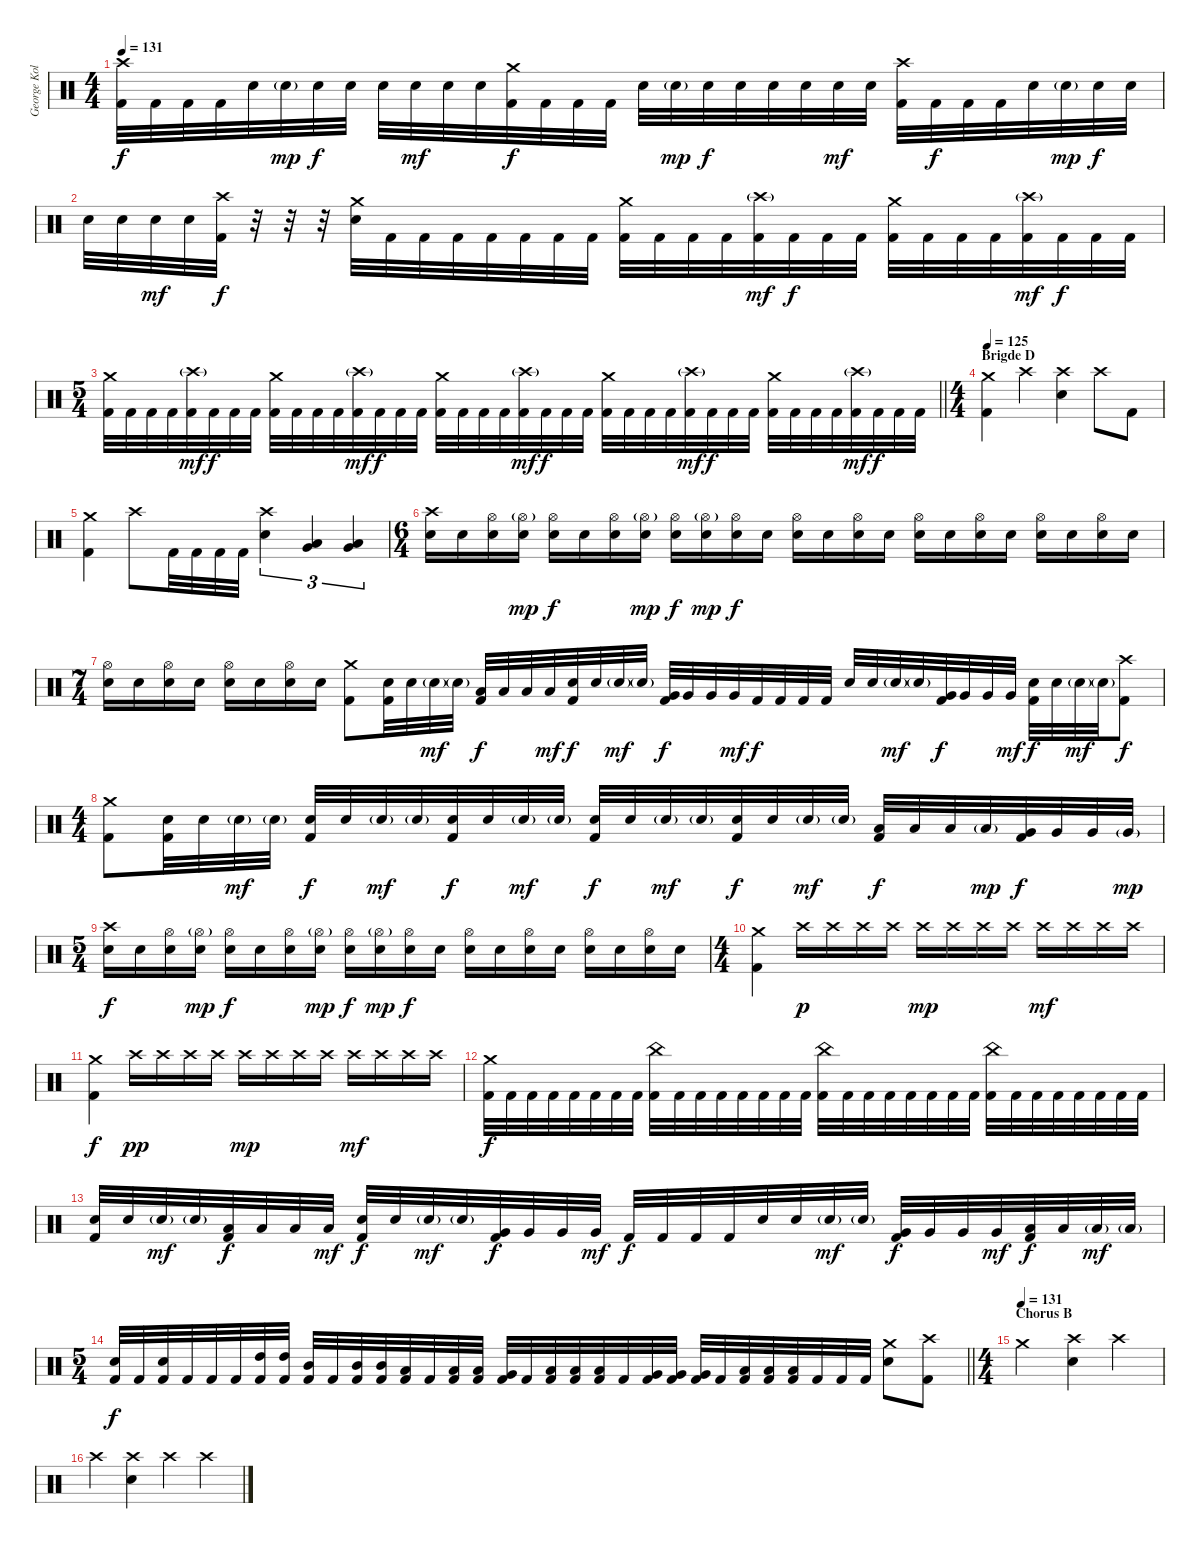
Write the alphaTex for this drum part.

\track ("George Kollias" "George Kol") {instrument percussion}
\staff {score}
\articulation defaults
\ts (4 4)
\tempo 131
\clef neutral
\ks c
("Crash high (hit)" "Kick (hit) 2").32{dy f} "Kick (hit) 2".32 "Kick (hit) 2".32 "Kick (hit) 2".32 "Electric Snare (hit)".32 "Electric Snare (hit)"{g}.32{dy mp} "Electric Snare (hit)".32{dy f} "Electric Snare (hit)".32 "Electric Snare (hit)".32 "Electric Snare (hit)".32{dy mf} "Electric Snare (hit)".32 "Electric Snare (hit)".32 ("Crash medium (hit)" "Kick (hit) 2").32{dy f} "Kick (hit) 2".32 "Kick (hit) 2".32 "Kick (hit) 2".32 "Electric Snare (hit)".32 "Electric Snare (hit)"{g}.32{dy mp} "Electric Snare (hit)".32{dy f} "Electric Snare (hit)".32 "Electric Snare (hit)".32 "Electric Snare (hit)".32 "Electric Snare (hit)".32{dy mf} "Electric Snare (hit)".32 ("Crash high (hit)" "Kick (hit) 2").32 "Kick (hit) 2".32{dy f} "Kick (hit) 2".32 "Kick (hit) 2".32 "Electric Snare (hit)".32 "Electric Snare (hit)"{g}.32{dy mp} "Electric Snare (hit)".32{dy f} "Electric Snare (hit)".32 |
"Electric Snare (hit)".32 "Electric Snare (hit)".32 "Electric Snare (hit)".32{dy mf} "Electric Snare (hit)".32 ("Crash high (hit)" "Kick (hit) 2").32{dy f} r.32 r.32 r.32 ("Crash medium (hit)" "Electric Snare (hit)").32 "Kick (hit) 2".32 "Kick (hit) 2".32 "Kick (hit) 2".32 "Kick (hit) 2".32 "Kick (hit) 2".32 "Kick (hit) 2".32 "Kick (hit) 2".32 ("Crash medium (hit)" "Kick (hit) 2").32 "Kick (hit) 2".32 "Kick (hit) 2".32 "Kick (hit) 2".32 ("Crash high (hit)"{g} "Kick (hit) 2").32{dy mf} "Kick (hit) 2".32{dy f} "Kick (hit) 2".32 "Kick (hit) 2".32 ("Crash medium (hit)" "Kick (hit) 2").32 "Kick (hit) 2".32 "Kick (hit) 2".32 "Kick (hit) 2".32 ("Crash high (hit)"{g} "Kick (hit) 2").32{dy mf} "Kick (hit) 2".32{dy f} "Kick (hit) 2".32 "Kick (hit) 2".32 |
\ts (5 4)
\barLineRight lightlight
("Crash medium (hit)" "Kick (hit) 2").32 "Kick (hit) 2".32 "Kick (hit) 2".32 "Kick (hit) 2".32 ("Crash high (hit)"{g} "Kick (hit) 2").32{dy mf} "Kick (hit) 2".32{dy f} "Kick (hit) 2".32 "Kick (hit) 2".32 ("Crash medium (hit)" "Kick (hit) 2").32 "Kick (hit) 2".32 "Kick (hit) 2".32 "Kick (hit) 2".32 ("Crash high (hit)"{g} "Kick (hit) 2").32{dy mf} "Kick (hit) 2".32{dy f} "Kick (hit) 2".32 "Kick (hit) 2".32 ("Crash medium (hit)" "Kick (hit) 2").32 "Kick (hit) 2".32 "Kick (hit) 2".32 "Kick (hit) 2".32 ("Crash high (hit)"{g} "Kick (hit) 2").32{dy mf} "Kick (hit) 2".32{dy f} "Kick (hit) 2".32 "Kick (hit) 2".32 ("Crash medium (hit)" "Kick (hit) 2").32 "Kick (hit) 2".32 "Kick (hit) 2".32 "Kick (hit) 2".32 ("Crash high (hit)"{g} "Kick (hit) 2").32{dy mf} "Kick (hit) 2".32{dy f} "Kick (hit) 2".32 "Kick (hit) 2".32 ("Crash medium (hit)" "Kick (hit) 2").32 "Kick (hit) 2".32 "Kick (hit) 2".32 "Kick (hit) 2".32 ("Crash high (hit)"{g} "Kick (hit) 2").32{dy mf} "Kick (hit) 2".32{dy f} "Kick (hit) 2".32 "Kick (hit) 2".32 |
\ts (4 4)
\section ("" "Brigde D")
\tempo 125
("Crash medium (hit)" "Kick (hit) 2").4 "Crash high (hit)".4 ("Crash high (hit)" "Electric Snare (hit)").4 "Crash high (hit)".8 "Kick (hit) 2".8 |
("Crash medium (hit)" "Kick (hit) 2").4 "Crash high (hit)".8 "Kick (hit) 2".32 "Kick (hit) 2".32 "Kick (hit) 2".32 "Kick (hit) 2".32 ("Crash high (hit)" "Electric Snare (hit)").4{tu (3 2)} ("Low Tom (hit)" "Very Low Tom (hit)").4{tu (3 2)} ("Very Low Tom (hit)" "Low Floor Tom (hit)").4{tu (3 2)} |
\ts (6 4)
("Crash high (hit)" "Electric Snare (hit)").16 "Electric Snare (hit)".16 ("Hi-Hat (open)" "Electric Snare (hit)").16 ("Hi-Hat (open)"{g} "Electric Snare (hit)").16{dy mp} ("Hi-Hat (open)" "Electric Snare (hit)").16{dy f} "Electric Snare (hit)".16 ("Hi-Hat (open)" "Electric Snare (hit)").16 ("Hi-Hat (open)"{g} "Electric Snare (hit)").16{dy mp} ("Hi-Hat (open)" "Electric Snare (hit)").16{dy f} ("Hi-Hat (open)"{g} "Electric Snare (hit)").16{dy mp} ("Hi-Hat (open)" "Electric Snare (hit)").16{dy f} "Electric Snare (hit)".16 ("Hi-Hat (open)" "Electric Snare (hit)").16 "Electric Snare (hit)".16 ("Hi-Hat (open)" "Electric Snare (hit)").16 "Electric Snare (hit)".16 ("Hi-Hat (open)" "Electric Snare (hit)").16 "Electric Snare (hit)".16 ("Hi-Hat (open)" "Electric Snare (hit)").16 "Electric Snare (hit)".16 ("Hi-Hat (open)" "Electric Snare (hit)").16 "Electric Snare (hit)".16 ("Hi-Hat (open)" "Electric Snare (hit)").16 "Electric Snare (hit)".16 |
\ts (7 4)
("Hi-Hat (open)" "Electric Snare (hit)").16 "Electric Snare (hit)".16 ("Hi-Hat (open)" "Electric Snare (hit)").16 "Electric Snare (hit)".16 ("Hi-Hat (open)" "Electric Snare (hit)").16 "Electric Snare (hit)".16 ("Hi-Hat (open)" "Electric Snare (hit)").16 "Electric Snare (hit)".16 ("Crash medium (hit)" "Kick (hit) 2").8 ("Electric Snare (hit)" "Kick (hit) 2").32 "Electric Snare (hit)".32 "Electric Snare (hit)"{g}.32{dy mf} "Electric Snare (hit)"{g}.32 ("Low Tom (hit)" "Kick (hit) 2").32{dy f} "Low Tom (hit)".32 "Low Tom (hit)".32 "Low Tom (hit)".32{dy mf} ("Electric Snare (hit)" "Kick (hit) 2").32{dy f} "Electric Snare (hit)".32 "Electric Snare (hit)"{g}.32{dy mf} "Electric Snare (hit)"{g}.32 ("Very Low Tom (hit)" "Kick (hit) 2").32{dy f} "Very Low Tom (hit)".32 "Very Low Tom (hit)".32 "Very Low Tom (hit)".32{dy mf} "Kick (hit) 2".32{dy f} "Kick (hit) 2".32 "Kick (hit) 2".32 "Kick (hit) 2".32 "Electric Snare (hit)".32 "Electric Snare (hit)".32 "Electric Snare (hit)"{g}.32{dy mf} "Electric Snare (hit)"{g}.32 ("Very Low Tom (hit)" "Kick (hit) 2").32{dy f} "Very Low Tom (hit)".32 "Very Low Tom (hit)".32 "Very Low Tom (hit)".32{dy mf} ("Electric Snare (hit)" "Kick (hit) 2").32{dy f} "Electric Snare (hit)".32 "Electric Snare (hit)"{g}.32{dy mf} "Electric Snare (hit)"{g}.32 ("Crash high (hit)" "Kick (hit) 2").8{dy f} |
\ts (4 4)
("Crash medium (hit)" "Kick (hit) 2").8 ("Electric Snare (hit)" "Kick (hit) 2").32 "Electric Snare (hit)".32 "Electric Snare (hit)"{g}.32{dy mf} "Electric Snare (hit)"{g}.32 ("Electric Snare (hit)" "Kick (hit) 2").32{dy f} "Electric Snare (hit)".32 "Electric Snare (hit)"{g}.32{dy mf} "Electric Snare (hit)"{g}.32 ("Electric Snare (hit)" "Kick (hit) 2").32{dy f} "Electric Snare (hit)".32 "Electric Snare (hit)"{g}.32{dy mf} "Electric Snare (hit)"{g}.32 ("Electric Snare (hit)" "Kick (hit) 2").32{dy f} "Electric Snare (hit)".32 "Electric Snare (hit)"{g}.32{dy mf} "Electric Snare (hit)"{g}.32 ("Electric Snare (hit)" "Kick (hit) 2").32{dy f} "Electric Snare (hit)".32 "Electric Snare (hit)"{g}.32{dy mf} "Electric Snare (hit)"{g}.32 ("Low Tom (hit)" "Kick (hit) 2").32{dy f} "Low Tom (hit)".32 "Low Tom (hit)".32 "Low Tom (hit)"{g}.32{dy mp} ("Very Low Tom (hit)" "Kick (hit) 2").32{dy f} "Very Low Tom (hit)".32 "Very Low Tom (hit)".32 "Very Low Tom (hit)"{g}.32{dy mp} |
\ts (5 4)
("Crash high (hit)" "Electric Snare (hit)").16{dy f} "Electric Snare (hit)".16 ("Hi-Hat (open)" "Electric Snare (hit)").16 ("Hi-Hat (open)"{g} "Electric Snare (hit)").16{dy mp} ("Hi-Hat (open)" "Electric Snare (hit)").16{dy f} "Electric Snare (hit)".16 ("Hi-Hat (open)" "Electric Snare (hit)").16 ("Hi-Hat (open)"{g} "Electric Snare (hit)").16{dy mp} ("Hi-Hat (open)" "Electric Snare (hit)").16{dy f} ("Hi-Hat (open)"{g} "Electric Snare (hit)").16{dy mp} ("Hi-Hat (open)" "Electric Snare (hit)").16{dy f} "Electric Snare (hit)".16 ("Hi-Hat (open)" "Electric Snare (hit)").16 "Electric Snare (hit)".16 ("Hi-Hat (open)" "Electric Snare (hit)").16 "Electric Snare (hit)".16 ("Hi-Hat (open)" "Electric Snare (hit)").16 "Electric Snare (hit)".16 ("Hi-Hat (open)" "Electric Snare (hit)").16 "Electric Snare (hit)".16 |
\ts (4 4)
("Crash medium (hit)" "Kick (hit) 2").4 "Crash high (hit)".16{dy p} "Crash high (hit)".16 "Crash high (hit)".16 "Crash high (hit)".16 "Crash high (hit)".16{dy mp} "Crash high (hit)".16 "Crash high (hit)".16 "Crash high (hit)".16 "Crash high (hit)".16{dy mf} "Crash high (hit)".16 "Crash high (hit)".16 "Crash high (hit)".16 |
("Crash medium (hit)" "Kick (hit) 2").4{dy f} "Crash high (hit)".16{dy pp} "Crash high (hit)".16 "Crash high (hit)".16 "Crash high (hit)".16 "Crash high (hit)".16{dy mp} "Crash high (hit)".16 "Crash high (hit)".16 "Crash high (hit)".16 "Crash high (hit)".16{dy mf} "Crash high (hit)".16 "Crash high (hit)".16 "Crash high (hit)".16 |
("Crash medium (hit)" "Kick (hit) 2").32{dy f} "Kick (hit) 2".32 "Kick (hit) 2".32 "Kick (hit) 2".32 "Kick (hit) 2".32 "Kick (hit) 2".32 "Kick (hit) 2".32 "Kick (hit) 2".32 ("China (hit)" "Kick (hit) 2").32 "Kick (hit) 2".32 "Kick (hit) 2".32 "Kick (hit) 2".32 "Kick (hit) 2".32 "Kick (hit) 2".32 "Kick (hit) 2".32 "Kick (hit) 2".32 ("China (hit)" "Kick (hit) 2").32 "Kick (hit) 2".32 "Kick (hit) 2".32 "Kick (hit) 2".32 "Kick (hit) 2".32 "Kick (hit) 2".32 "Kick (hit) 2".32 "Kick (hit) 2".32 ("China (hit)" "Kick (hit) 2").32 "Kick (hit) 2".32 "Kick (hit) 2".32 "Kick (hit) 2".32 "Kick (hit) 2".32 "Kick (hit) 2".32 "Kick (hit) 2".32 "Kick (hit) 2".32 |
("Electric Snare (hit)" "Kick (hit) 2").32 "Electric Snare (hit)".32 "Electric Snare (hit)"{g}.32{dy mf} "Electric Snare (hit)"{g}.32 ("Low Tom (hit)" "Kick (hit) 2").32{dy f} "Low Tom (hit)".32 "Low Tom (hit)".32 "Low Tom (hit)".32{dy mf} ("Electric Snare (hit)" "Kick (hit) 2").32{dy f} "Electric Snare (hit)".32 "Electric Snare (hit)"{g}.32{dy mf} "Electric Snare (hit)"{g}.32 ("Very Low Tom (hit)" "Kick (hit) 2").32{dy f} "Very Low Tom (hit)".32 "Very Low Tom (hit)".32 "Very Low Tom (hit)".32{dy mf} "Kick (hit) 2".32{dy f} "Kick (hit) 2".32 "Kick (hit) 2".32 "Kick (hit) 2".32 "Electric Snare (hit)".32 "Electric Snare (hit)".32 "Electric Snare (hit)"{g}.32{dy mf} "Electric Snare (hit)"{g}.32 ("Very Low Tom (hit)" "Kick (hit) 2").32{dy f} "Very Low Tom (hit)".32 "Very Low Tom (hit)".32 "Very Low Tom (hit)".32{dy mf} ("Low Floor Tom (hit)" "Kick (hit) 2").32{dy f} "Low Floor Tom (hit)".32 "Low Floor Tom (hit)"{g}.32{dy mf} "Low Floor Tom (hit)"{g}.32 |
\ts (5 4)
\barLineRight lightlight
("Electric Snare (hit)" "Kick (hit) 2").32{dy f} "Kick (hit) 2".32 ("Electric Snare (hit)" "Kick (hit) 2").32 "Kick (hit) 2".32 "Kick (hit) 2".32 "Kick (hit) 2".32 ("High Tom (hit)" "Kick (hit) 2").32 ("High Tom (hit)" "Kick (hit) 2").32 ("Mid Tom (hit)" "Kick (hit) 2").32 "Kick (hit) 2".32 ("Mid Tom (hit)" "Kick (hit) 2").32 ("Mid Tom (hit)" "Kick (hit) 2").32 ("Low Tom (hit)" "Kick (hit) 2").32 "Kick (hit) 2".32 ("Low Tom (hit)" "Kick (hit) 2").32 ("Low Tom (hit)" "Kick (hit) 2").32 ("Very Low Tom (hit)" "Kick (hit) 2").32 "Kick (hit) 2".32 ("Low Tom (hit)" "Kick (hit) 2").32 ("Low Tom (hit)" "Kick (hit) 2").32 ("Low Tom (hit)" "Kick (hit) 2").32 "Kick (hit) 2".32 ("Very Low Tom (hit)" "Kick (hit) 2").32 ("Very Low Tom (hit)" "Kick (hit) 2").32 ("Very Low Tom (hit)" "Kick (hit) 2").32 "Kick (hit) 2".32 ("Low Floor Tom (hit)" "Kick (hit) 2").32 ("Low Floor Tom (hit)" "Kick (hit) 2").32 ("Low Floor Tom (hit)" "Kick (hit) 2").32 "Kick (hit) 2".32 "Kick (hit) 2".32 "Kick (hit) 2".32 ("Crash medium (hit)" "Electric Snare (hit)").8 ("Crash high (hit)" "Kick (hit) 2").8 |
\ts (4 4)
\section ("" "Chorus B")
\tempo (131)
"Crash medium (hit)".2 ("Crash high (hit)" "Electric Snare (hit)").4 "Crash high (hit)".4 |
"Crash high (hit)".4 ("Crash high (hit)" "Electric Snare (hit)").4 "Crash high (hit)".4 "Crash high (hit)".4
